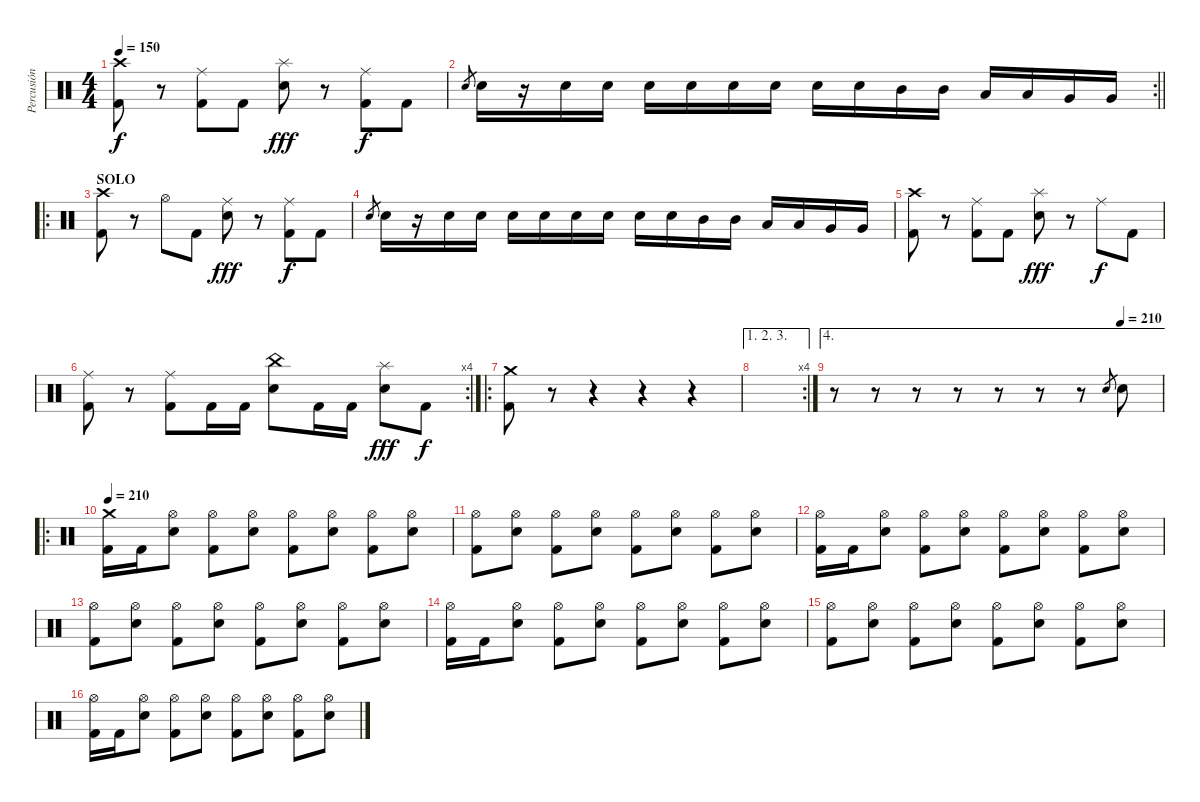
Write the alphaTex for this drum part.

\track ("Percusión" "Percusión") {instrument percussion}
\staff {score}
\articulation defaults
\ts (4 4)
\tempo 150
\clef neutral
\ks c
("Crash high (hit)" "Kick (hit) 2").8{dy f} r.8 ("Ride (middle)" "Kick (hit) 2").8 "Kick (hit) 2".8 ("Splash (hit)" "Snare (hit) 2").8{dy fff} r.8 ("Ride (middle)" "Kick (hit) 2").8{dy f} "Kick (hit) 2".8 |
\rc 2
\barLineRight lightlight "Snare (hit) 2".8{gr} "Snare (hit) 2".16
r.16 "Snare (hit) 2".16 "Snare (hit) 2".16 "Snare (hit) 2".16 "Snare (hit) 2".16 "Snare (hit) 2".16 "Snare (hit) 2".16 "Snare (hit) 2".16 "Snare (hit) 2".16 "Mid Tom (hit)".16 "Mid Tom (hit)".16 "Low Tom (hit)".16 "Low Tom (hit)".16 "Very Low Tom (hit)".16 "Very Low Tom (hit)".16 |
\ro
\section ("" "SOLO")
("Crash high (hit)" "Kick (hit) 2").8 r.8 "Hi-Hat (open)".8 "Kick (hit) 2".8 ("Ride (middle)" "Snare (hit) 2").8{dy fff} r.8 ("Ride (middle)" "Kick (hit) 2").8{dy f} "Kick (hit) 2".8 |
"Snare (hit) 2".8{gr} "Snare (hit) 2".16 r.16 "Snare (hit) 2".16 "Snare (hit) 2".16 "Snare (hit) 2".16 "Snare (hit) 2".16 "Snare (hit) 2".16 "Snare (hit) 2".16 "Snare (hit) 2".16 "Snare (hit) 2".16 "Mid Tom (hit)".16 "Mid Tom (hit)".16 "Low Tom (hit)".16 "Low Tom (hit)".16 "Very Low Tom (hit)".16 "Very Low Tom (hit)".16 |
("Crash high (hit)" "Kick (hit) 2").8 r.8 ("Ride (middle)" "Kick (hit) 2").8 "Kick (hit) 2".8 ("Splash (hit)" "Snare (hit) 2").8{dy fff} r.8 "Ride (middle)".8{dy f} "Kick (hit) 2".8 |
\rc 4
("Ride (middle)" "Kick (hit) 2").8 r.8 ("Ride (middle)" "Kick (hit) 2").8 "Kick (hit) 2".16 "Kick (hit) 2".16 ("China (hit)" "Snare (hit) 2").8 "Kick (hit) 2".16 "Kick (hit) 2".16 ("Splash (hit)" "Snare (hit) 2").8{dy fff} "Kick (hit) 2".8{dy f} |
\ro
("Crash medium (hit)" "Kick (hit) 2").8 r.8 r.4 r.4 r.4 |
\ae (1 2 3)
\rc 4
|
\ae 4
\tempo (210 0.875)
r.8 r.8 r.8 r.8 r.8 r.8 r.8 "Snare (hit) 2".8{gr} "Snare (hit) 2".8 |
\ro
\tempo 210
("Crash medium (hit)" "Kick (hit) 2").16 "Kick (hit) 2".16 ("Hi-Hat (open)" "Snare (hit) 2").8 ("Hi-Hat (open)" "Kick (hit) 2").8 ("Hi-Hat (open)" "Snare (hit) 2").8 ("Hi-Hat (open)" "Kick (hit) 2").8 ("Hi-Hat (open)" "Snare (hit) 2").8 ("Hi-Hat (open)" "Kick (hit) 2").8 ("Hi-Hat (open)" "Snare (hit) 2").8 |
("Hi-Hat (open)" "Kick (hit) 2").8 ("Hi-Hat (open)" "Snare (hit) 2").8 ("Hi-Hat (open)" "Kick (hit) 2").8 ("Hi-Hat (open)" "Snare (hit) 2").8 ("Hi-Hat (open)" "Kick (hit) 2").8 ("Hi-Hat (open)" "Snare (hit) 2").8 ("Hi-Hat (open)" "Kick (hit) 2").8 ("Hi-Hat (open)" "Snare (hit) 2").8 |
("Hi-Hat (open)" "Kick (hit) 2").16 "Kick (hit) 2".16 ("Hi-Hat (open)" "Snare (hit) 2").8 ("Hi-Hat (open)" "Kick (hit) 2").8 ("Hi-Hat (open)" "Snare (hit) 2").8 ("Hi-Hat (open)" "Kick (hit) 2").8 ("Hi-Hat (open)" "Snare (hit) 2").8 ("Hi-Hat (open)" "Kick (hit) 2").8 ("Hi-Hat (open)" "Snare (hit) 2").8 |
("Hi-Hat (open)" "Kick (hit) 2").8 ("Hi-Hat (open)" "Snare (hit) 2").8 ("Hi-Hat (open)" "Kick (hit) 2").8 ("Hi-Hat (open)" "Snare (hit) 2").8 ("Hi-Hat (open)" "Kick (hit) 2").8 ("Hi-Hat (open)" "Snare (hit) 2").8 ("Hi-Hat (open)" "Kick (hit) 2").8 ("Hi-Hat (open)" "Snare (hit) 2").8 |
("Hi-Hat (open)" "Kick (hit) 2").16 "Kick (hit) 2".16 ("Hi-Hat (open)" "Snare (hit) 2").8 ("Hi-Hat (open)" "Kick (hit) 2").8 ("Hi-Hat (open)" "Snare (hit) 2").8 ("Hi-Hat (open)" "Kick (hit) 2").8 ("Hi-Hat (open)" "Snare (hit) 2").8 ("Hi-Hat (open)" "Kick (hit) 2").8 ("Hi-Hat (open)" "Snare (hit) 2").8 |
("Hi-Hat (open)" "Kick (hit) 2").8 ("Hi-Hat (open)" "Snare (hit) 2").8 ("Hi-Hat (open)" "Kick (hit) 2").8 ("Hi-Hat (open)" "Snare (hit) 2").8 ("Hi-Hat (open)" "Kick (hit) 2").8 ("Hi-Hat (open)" "Snare (hit) 2").8 ("Hi-Hat (open)" "Kick (hit) 2").8 ("Hi-Hat (open)" "Snare (hit) 2").8 |
("Hi-Hat (open)" "Kick (hit) 2").16 "Kick (hit) 2".16 ("Hi-Hat (open)" "Snare (hit) 2").8 ("Hi-Hat (open)" "Kick (hit) 2").8 ("Hi-Hat (open)" "Snare (hit) 2").8 ("Hi-Hat (open)" "Kick (hit) 2").8 ("Hi-Hat (open)" "Snare (hit) 2").8 ("Hi-Hat (open)" "Kick (hit) 2").8 ("Hi-Hat (open)" "Snare (hit) 2").8
